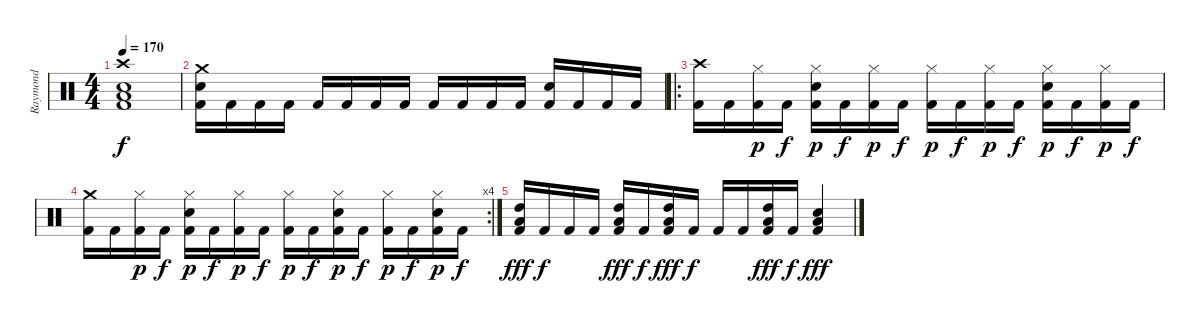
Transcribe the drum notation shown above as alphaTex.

\track ("Raymond" "Raymond") {instrument percussion}
\staff {score}
\articulation defaults
\ts (4 4)
\tempo 170
\clef neutral
\ks c
("Crash high (hit)" "Electric Snare (hit)" "Low Tom (hit)" "Kick (hit) 2").1{dy f} |
("Crash medium (hit)" "Electric Snare (hit)" "Kick (hit) 2").16 "Kick (hit) 2".16 "Kick (hit) 2".16 "Kick (hit) 2".16 "Kick (hit) 2".16 "Kick (hit) 2".16 "Kick (hit) 2".16 "Kick (hit) 2".16 "Kick (hit) 2".16 "Kick (hit) 2".16 "Kick (hit) 2".16 "Kick (hit) 2".16 ("Electric Snare (hit)" "Kick (hit) 2").16 "Kick (hit) 2".16 "Kick (hit) 2".16 "Kick (hit) 2".16 |
\ro
("Crash high (hit)" "Kick (hit) 2").16 "Kick (hit) 2".16 ("Hi-Hat (closed)" "Kick (hit) 2").16{dy p} "Kick (hit) 2".16{dy f} ("Hi-Hat (closed)" "Electric Snare (hit)" "Kick (hit) 2").16{dy p} "Kick (hit) 2".16{dy f} ("Hi-Hat (closed)" "Kick (hit) 2").16{dy p} "Kick (hit) 2".16{dy f} ("Hi-Hat (closed)" "Kick (hit) 2").16{dy p} "Kick (hit) 2".16{dy f} ("Hi-Hat (closed)" "Kick (hit) 2").16{dy p} "Kick (hit) 2".16{dy f} ("Hi-Hat (closed)" "Electric Snare (hit)" "Kick (hit) 2").16{dy p} "Kick (hit) 2".16{dy f} ("Hi-Hat (closed)" "Kick (hit) 2").16{dy p} "Kick (hit) 2".16{dy f} |
\rc 4
("Crash medium (hit)" "Kick (hit) 2").16 "Kick (hit) 2".16 ("Hi-Hat (closed)" "Kick (hit) 2").16{dy p} "Kick (hit) 2".16{dy f} ("Hi-Hat (closed)" "Electric Snare (hit)" "Kick (hit) 2").16{dy p} "Kick (hit) 2".16{dy f} ("Hi-Hat (closed)" "Kick (hit) 2").16{dy p} "Kick (hit) 2".16{dy f} ("Hi-Hat (closed)" "Kick (hit) 2").16{dy p} "Kick (hit) 2".16{dy f} ("Hi-Hat (closed)" "Electric Snare (hit)" "Kick (hit) 2").16{dy p} "Kick (hit) 2".16{dy f} ("Hi-Hat (closed)" "Kick (hit) 2").16{dy p} "Kick (hit) 2".16{dy f} ("Hi-Hat (closed)" "Electric Snare (hit)" "Kick (hit) 2").16{dy p} "Kick (hit) 2".16{dy f} |
("High Tom (hit)" "Low Tom (hit)" "Kick (hit) 2").16{dy fff} "Kick (hit) 2".16{dy f} "Kick (hit) 2".16 "Kick (hit) 2".16 ("High Tom (hit)" "Low Tom (hit)" "Kick (hit) 2").16{dy fff} "Kick (hit) 2".16{dy f} ("High Tom (hit)" "Low Tom (hit)" "Kick (hit) 2").16{dy fff} "Kick (hit) 2".16{dy f} "Kick (hit) 2".16 "Kick (hit) 2".16 ("High Tom (hit)" "Low Tom (hit)" "Kick (hit) 2").16{dy fff} "Kick (hit) 2".16{dy f} ("Electric Snare (hit)" "Low Tom (hit)" "Kick (hit) 2").4{dy fff}
